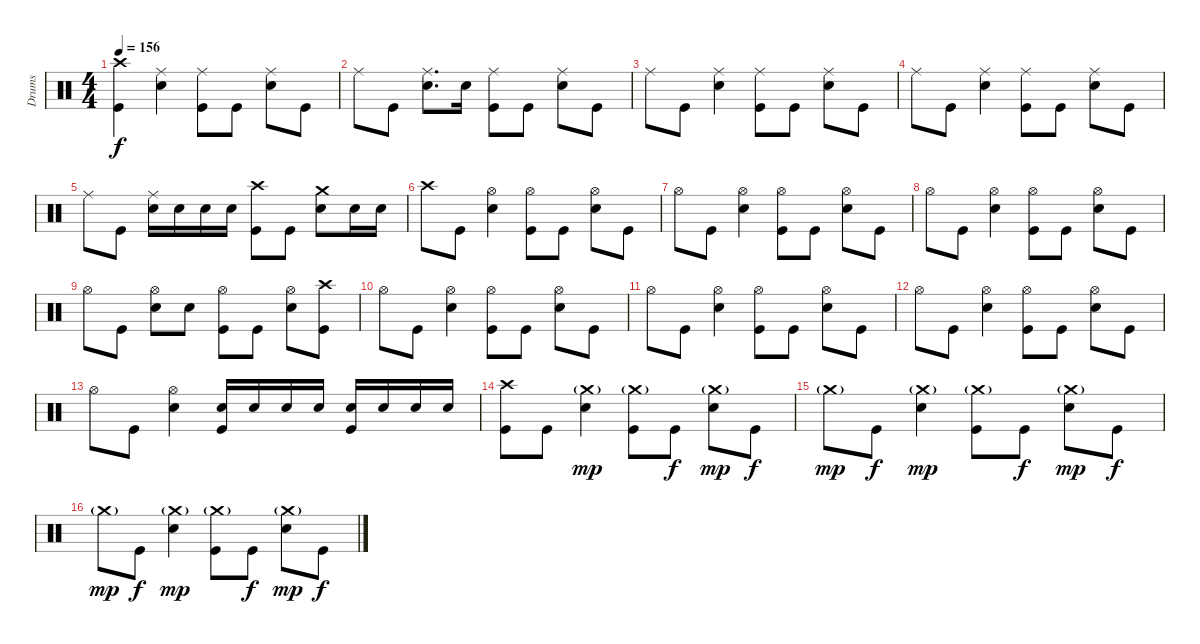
\track ("Drums" "Drums") {instrument percussion}
\staff {score}
\articulation defaults
\ts (4 4)
\tempo 156
\clef neutral
\ks c
("Crash high (hit)" "Kick (hit)").4{dy f} ("Ride (middle)" "Snare (hit) 2").4 ("Ride (middle)" "Kick (hit)").8 "Kick (hit)".8 ("Ride (middle)" "Snare (hit) 2").8 "Kick (hit)".8 |
"Ride (middle)".8 "Kick (hit)".8 ("Ride (middle)" "Snare (hit) 2").8{d} "Snare (hit) 2".16 ("Ride (middle)" "Kick (hit)").8 "Kick (hit)".8 ("Ride (middle)" "Snare (hit) 2").8 "Kick (hit)".8 |
"Ride (middle)".8 "Kick (hit)".8 ("Ride (middle)" "Snare (hit) 2").4 ("Ride (middle)" "Kick (hit)").8 "Kick (hit)".8 ("Ride (middle)" "Snare (hit) 2").8 "Kick (hit)".8 |
"Ride (middle)".8 "Kick (hit)".8 ("Ride (middle)" "Snare (hit) 2").4 ("Ride (middle)" "Kick (hit)").8 "Kick (hit)".8 ("Ride (middle)" "Snare (hit) 2").8 "Kick (hit)".8 |
"Ride (middle)".8 "Kick (hit)".8 ("Ride (middle)" "Snare (hit) 2").16 "Snare (hit) 2".16 "Snare (hit) 2".16 "Snare (hit) 2".16 ("Crash high (hit)" "Kick (hit)").8 "Kick (hit)".8 ("Crash medium (hit)" "Snare (hit) 2").8 "Snare (hit) 2".16 "Snare (hit) 2".16 |
"Crash high (hit)".8 "Kick (hit)".8 ("Hi-Hat (open)" "Snare (hit) 2").4 ("Hi-Hat (open)" "Kick (hit)").8 "Kick (hit)".8 ("Hi-Hat (open)" "Snare (hit) 2").8 "Kick (hit)".8 |
"Hi-Hat (open)".8 "Kick (hit)".8 ("Hi-Hat (open)" "Snare (hit) 2").4 ("Hi-Hat (open)" "Kick (hit)").8 "Kick (hit)".8 ("Hi-Hat (open)" "Snare (hit) 2").8 "Kick (hit)".8 |
"Hi-Hat (open)".8 "Kick (hit)".8 ("Hi-Hat (open)" "Snare (hit) 2").4 ("Hi-Hat (open)" "Kick (hit)").8 "Kick (hit)".8 ("Hi-Hat (open)" "Snare (hit) 2").8 "Kick (hit)".8 |
"Hi-Hat (open)".8 "Kick (hit)".8 ("Hi-Hat (open)" "Snare (hit) 2").8 "Snare (hit) 2".8 ("Hi-Hat (open)" "Kick (hit)").8 "Kick (hit)".8 ("Hi-Hat (open)" "Snare (hit) 2").8 ("Crash high (hit)" "Kick (hit)").8 |
"Hi-Hat (open)".8 "Kick (hit)".8 ("Hi-Hat (open)" "Snare (hit) 2").4 ("Hi-Hat (open)" "Kick (hit)").8 "Kick (hit)".8 ("Hi-Hat (open)" "Snare (hit) 2").8 "Kick (hit)".8 |
"Hi-Hat (open)".8 "Kick (hit)".8 ("Hi-Hat (open)" "Snare (hit) 2").4 ("Hi-Hat (open)" "Kick (hit)").8 "Kick (hit)".8 ("Hi-Hat (open)" "Snare (hit) 2").8 "Kick (hit)".8 |
"Hi-Hat (open)".8 "Kick (hit)".8 ("Hi-Hat (open)" "Snare (hit) 2").4 ("Hi-Hat (open)" "Kick (hit)").8 "Kick (hit)".8 ("Hi-Hat (open)" "Snare (hit) 2").8 "Kick (hit)".8 |
"Hi-Hat (open)".8 "Kick (hit)".8 ("Hi-Hat (open)" "Snare (hit) 2").4 ("Snare (hit) 2" "Kick (hit)").16 "Snare (hit) 2".16 "Snare (hit) 2".16 "Snare (hit) 2".16 ("Snare (hit) 2" "Kick (hit)").16 "Snare (hit) 2".16 "Snare (hit) 2".16 "Snare (hit) 2".16 |
("Crash high (hit)" "Kick (hit)").8 "Kick (hit)".8 ("Crash medium (hit)"{g} "Snare (hit) 2").4{dy mp} ("Crash medium (hit)"{g} "Kick (hit)").8 "Kick (hit)".8{dy f} ("Crash medium (hit)"{g} "Snare (hit) 2").8{dy mp} "Kick (hit)".8{dy f} |
"Crash medium (hit)"{g}.8{dy mp} "Kick (hit)".8{dy f} ("Crash medium (hit)"{g} "Snare (hit) 2").4{dy mp} ("Crash medium (hit)"{g} "Kick (hit)").8 "Kick (hit)".8{dy f} ("Crash medium (hit)"{g} "Snare (hit) 2").8{dy mp} "Kick (hit)".8{dy f} |
"Crash medium (hit)"{g}.8{dy mp} "Kick (hit)".8{dy f} ("Crash medium (hit)"{g} "Snare (hit) 2").4{dy mp} ("Crash medium (hit)"{g} "Kick (hit)").8 "Kick (hit)".8{dy f} ("Crash medium (hit)"{g} "Snare (hit) 2").8{dy mp} "Kick (hit)".8{dy f}
